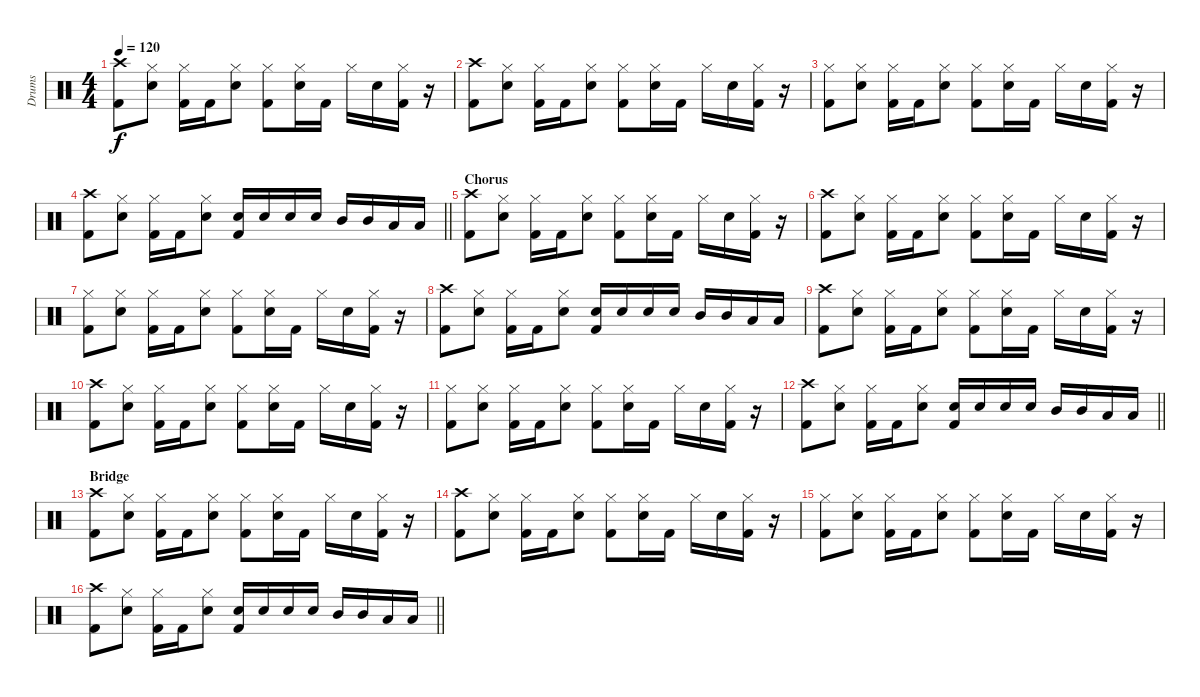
\track ("Drums" "Drums") {instrument percussion}
\staff {score}
\articulation defaults
\ts (4 4)
\tempo 120
\clef neutral
\ks c
("Crash high (hit)" "Kick (hit) 2").8{dy f} ("Hi-Hat (closed)" "Snare (hit) 2").8 ("Hi-Hat (closed)" "Kick (hit) 2").16 "Kick (hit) 2".16 ("Hi-Hat (closed)" "Snare (hit) 2").8 ("Hi-Hat (closed)" "Kick (hit) 2").8 ("Hi-Hat (closed)" "Snare (hit) 2").16 "Kick (hit) 2".16 "Hi-Hat (closed)".16 "Snare (hit) 2".16 ("Hi-Hat (closed)" "Kick (hit) 2").16 r.16 |
("Crash high (hit)" "Kick (hit) 2").8 ("Hi-Hat (closed)" "Snare (hit) 2").8 ("Hi-Hat (closed)" "Kick (hit) 2").16 "Kick (hit) 2".16 ("Hi-Hat (closed)" "Snare (hit) 2").8 ("Hi-Hat (closed)" "Kick (hit) 2").8 ("Hi-Hat (closed)" "Snare (hit) 2").16 "Kick (hit) 2".16 "Hi-Hat (closed)".16 "Snare (hit) 2".16 ("Hi-Hat (closed)" "Kick (hit) 2").16 r.16 |
("Hi-Hat (closed)" "Kick (hit) 2").8 ("Hi-Hat (closed)" "Snare (hit) 2").8 ("Hi-Hat (closed)" "Kick (hit) 2").16 "Kick (hit) 2".16 ("Hi-Hat (closed)" "Snare (hit) 2").8 ("Hi-Hat (closed)" "Kick (hit) 2").8 ("Hi-Hat (closed)" "Snare (hit) 2").16 "Kick (hit) 2".16 "Hi-Hat (closed)".16 "Snare (hit) 2".16 ("Hi-Hat (closed)" "Kick (hit) 2").16 r.16 |
\barLineRight lightlight
("Crash high (hit)" "Kick (hit) 2").8 ("Hi-Hat (closed)" "Snare (hit) 2").8 ("Hi-Hat (closed)" "Kick (hit) 2").16 "Kick (hit) 2".16 ("Hi-Hat (closed)" "Snare (hit) 2").8 ("Snare (hit) 2" "Kick (hit) 2").16 "Snare (hit) 2".16 "Snare (hit) 2".16 "Snare (hit) 2".16 "Mid Tom (hit)".16 "Mid Tom (hit)".16 "Low Tom (hit)".16 "Low Tom (hit)".16 |
\section ("" "Chorus")
("Crash high (hit)" "Kick (hit) 2").8 ("Hi-Hat (closed)" "Snare (hit) 2").8 ("Hi-Hat (closed)" "Kick (hit) 2").16 "Kick (hit) 2".16 ("Hi-Hat (closed)" "Snare (hit) 2").8 ("Hi-Hat (closed)" "Kick (hit) 2").8 ("Hi-Hat (closed)" "Snare (hit) 2").16 "Kick (hit) 2".16 "Hi-Hat (closed)".16 "Snare (hit) 2".16 ("Hi-Hat (closed)" "Kick (hit) 2").16 r.16 |
("Crash high (hit)" "Kick (hit) 2").8 ("Hi-Hat (closed)" "Snare (hit) 2").8 ("Hi-Hat (closed)" "Kick (hit) 2").16 "Kick (hit) 2".16 ("Hi-Hat (closed)" "Snare (hit) 2").8 ("Hi-Hat (closed)" "Kick (hit) 2").8 ("Hi-Hat (closed)" "Snare (hit) 2").16 "Kick (hit) 2".16 "Hi-Hat (closed)".16 "Snare (hit) 2".16 ("Hi-Hat (closed)" "Kick (hit) 2").16 r.16 |
("Hi-Hat (closed)" "Kick (hit) 2").8 ("Hi-Hat (closed)" "Snare (hit) 2").8 ("Hi-Hat (closed)" "Kick (hit) 2").16 "Kick (hit) 2".16 ("Hi-Hat (closed)" "Snare (hit) 2").8 ("Hi-Hat (closed)" "Kick (hit) 2").8 ("Hi-Hat (closed)" "Snare (hit) 2").16 "Kick (hit) 2".16 "Hi-Hat (closed)".16 "Snare (hit) 2".16 ("Hi-Hat (closed)" "Kick (hit) 2").16 r.16 |
("Crash high (hit)" "Kick (hit) 2").8 ("Hi-Hat (closed)" "Snare (hit) 2").8 ("Hi-Hat (closed)" "Kick (hit) 2").16 "Kick (hit) 2".16 ("Hi-Hat (closed)" "Snare (hit) 2").8 ("Snare (hit) 2" "Kick (hit) 2").16 "Snare (hit) 2".16 "Snare (hit) 2".16 "Snare (hit) 2".16 "Mid Tom (hit)".16 "Mid Tom (hit)".16 "Low Tom (hit)".16 "Low Tom (hit)".16 |
("Crash high (hit)" "Kick (hit) 2").8 ("Hi-Hat (closed)" "Snare (hit) 2").8 ("Hi-Hat (closed)" "Kick (hit) 2").16 "Kick (hit) 2".16 ("Hi-Hat (closed)" "Snare (hit) 2").8 ("Hi-Hat (closed)" "Kick (hit) 2").8 ("Hi-Hat (closed)" "Snare (hit) 2").16 "Kick (hit) 2".16 "Hi-Hat (closed)".16 "Snare (hit) 2".16 ("Hi-Hat (closed)" "Kick (hit) 2").16 r.16 |
("Crash high (hit)" "Kick (hit) 2").8 ("Hi-Hat (closed)" "Snare (hit) 2").8 ("Hi-Hat (closed)" "Kick (hit) 2").16 "Kick (hit) 2".16 ("Hi-Hat (closed)" "Snare (hit) 2").8 ("Hi-Hat (closed)" "Kick (hit) 2").8 ("Hi-Hat (closed)" "Snare (hit) 2").16 "Kick (hit) 2".16 "Hi-Hat (closed)".16 "Snare (hit) 2".16 ("Hi-Hat (closed)" "Kick (hit) 2").16 r.16 |
("Hi-Hat (closed)" "Kick (hit) 2").8 ("Hi-Hat (closed)" "Snare (hit) 2").8 ("Hi-Hat (closed)" "Kick (hit) 2").16 "Kick (hit) 2".16 ("Hi-Hat (closed)" "Snare (hit) 2").8 ("Hi-Hat (closed)" "Kick (hit) 2").8 ("Hi-Hat (closed)" "Snare (hit) 2").16 "Kick (hit) 2".16 "Hi-Hat (closed)".16 "Snare (hit) 2".16 ("Hi-Hat (closed)" "Kick (hit) 2").16 r.16 |
\barLineRight lightlight
("Crash high (hit)" "Kick (hit) 2").8 ("Hi-Hat (closed)" "Snare (hit) 2").8 ("Hi-Hat (closed)" "Kick (hit) 2").16 "Kick (hit) 2".16 ("Hi-Hat (closed)" "Snare (hit) 2").8 ("Snare (hit) 2" "Kick (hit) 2").16 "Snare (hit) 2".16 "Snare (hit) 2".16 "Snare (hit) 2".16 "Mid Tom (hit)".16 "Mid Tom (hit)".16 "Low Tom (hit)".16 "Low Tom (hit)".16 |
\section ("" "Bridge")
("Crash high (hit)" "Kick (hit) 2").8 ("Hi-Hat (closed)" "Snare (hit) 2").8 ("Hi-Hat (closed)" "Kick (hit) 2").16 "Kick (hit) 2".16 ("Hi-Hat (closed)" "Snare (hit) 2").8 ("Hi-Hat (closed)" "Kick (hit) 2").8 ("Hi-Hat (closed)" "Snare (hit) 2").16 "Kick (hit) 2".16 "Hi-Hat (closed)".16 "Snare (hit) 2".16 ("Hi-Hat (closed)" "Kick (hit) 2").16 r.16 |
("Crash high (hit)" "Kick (hit) 2").8 ("Hi-Hat (closed)" "Snare (hit) 2").8 ("Hi-Hat (closed)" "Kick (hit) 2").16 "Kick (hit) 2".16 ("Hi-Hat (closed)" "Snare (hit) 2").8 ("Hi-Hat (closed)" "Kick (hit) 2").8 ("Hi-Hat (closed)" "Snare (hit) 2").16 "Kick (hit) 2".16 "Hi-Hat (closed)".16 "Snare (hit) 2".16 ("Hi-Hat (closed)" "Kick (hit) 2").16 r.16 |
("Hi-Hat (closed)" "Kick (hit) 2").8 ("Hi-Hat (closed)" "Snare (hit) 2").8 ("Hi-Hat (closed)" "Kick (hit) 2").16 "Kick (hit) 2".16 ("Hi-Hat (closed)" "Snare (hit) 2").8 ("Hi-Hat (closed)" "Kick (hit) 2").8 ("Hi-Hat (closed)" "Snare (hit) 2").16 "Kick (hit) 2".16 "Hi-Hat (closed)".16 "Snare (hit) 2".16 ("Hi-Hat (closed)" "Kick (hit) 2").16 r.16 |
\barLineRight lightlight
("Crash high (hit)" "Kick (hit) 2").8 ("Hi-Hat (closed)" "Snare (hit) 2").8 ("Hi-Hat (closed)" "Kick (hit) 2").16 "Kick (hit) 2".16 ("Hi-Hat (closed)" "Snare (hit) 2").8 ("Snare (hit) 2" "Kick (hit) 2").16 "Snare (hit) 2".16 "Snare (hit) 2".16 "Snare (hit) 2".16 "Mid Tom (hit)".16 "Mid Tom (hit)".16 "Low Tom (hit)".16 "Low Tom (hit)".16
